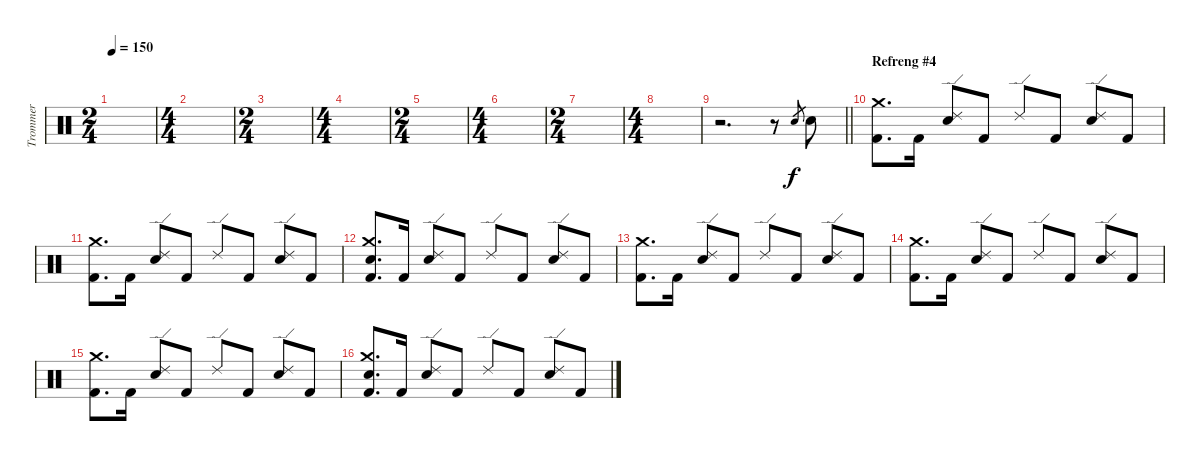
\track ("Trommer" "Trommer") {instrument percussion}
\staff {score}
\articulation defaults
\ts (2 4)
\tempo 150
\clef neutral
\ks c
|
\ts (4 4)
|
\ts (2 4)
|
\ts (4 4)
|
\ts (2 4)
|
\ts (4 4)
|
\ts (2 4)
|
\ts (4 4)
|
\barLineRight lightlight
r.2{d} r.8 "Snare (hit) 2".8{gr} "Snare (hit) 2".8 |
\section ("" "Refreng #4")
("Crash medium (hit)" "Kick (hit) 2").8{d} "Kick (hit) 2".16 ("Ride (edge) 2" "Snare (hit) 2").8 "Kick (hit) 2".8 "Ride (edge) 2".8 "Kick (hit) 2".8 ("Ride (edge) 2" "Snare (hit) 2").8 "Kick (hit) 2".8 |
("Crash medium (hit)" "Kick (hit) 2").8{d} "Kick (hit) 2".16 ("Ride (edge) 2" "Snare (hit) 2").8 "Kick (hit) 2".8 "Ride (edge) 2".8 "Kick (hit) 2".8 ("Ride (edge) 2" "Snare (hit) 2").8 "Kick (hit) 2".8 |
("Crash medium (hit)" "Snare (hit) 2" "Kick (hit) 2").8{d} "Kick (hit) 2".16 ("Ride (edge) 2" "Snare (hit) 2").8 "Kick (hit) 2".8 "Ride (edge) 2".8 "Kick (hit) 2".8 ("Ride (edge) 2" "Snare (hit) 2").8 "Kick (hit) 2".8 |
("Crash medium (hit)" "Kick (hit) 2").8{d} "Kick (hit) 2".16 ("Ride (edge) 2" "Snare (hit) 2").8 "Kick (hit) 2".8 "Ride (edge) 2".8 "Kick (hit) 2".8 ("Ride (edge) 2" "Snare (hit) 2").8 "Kick (hit) 2".8 |
("Crash medium (hit)" "Kick (hit) 2").8{d} "Kick (hit) 2".16 ("Ride (edge) 2" "Snare (hit) 2").8 "Kick (hit) 2".8 "Ride (edge) 2".8 "Kick (hit) 2".8 ("Ride (edge) 2" "Snare (hit) 2").8 "Kick (hit) 2".8 |
("Crash medium (hit)" "Kick (hit) 2").8{d} "Kick (hit) 2".16 ("Ride (edge) 2" "Snare (hit) 2").8 "Kick (hit) 2".8 "Ride (edge) 2".8 "Kick (hit) 2".8 ("Ride (edge) 2" "Snare (hit) 2").8 "Kick (hit) 2".8 |
("Crash medium (hit)" "Snare (hit) 2" "Kick (hit) 2").8{d} "Kick (hit) 2".16 ("Ride (edge) 2" "Snare (hit) 2").8 "Kick (hit) 2".8 "Ride (edge) 2".8 "Kick (hit) 2".8 ("Ride (edge) 2" "Snare (hit) 2").8 "Kick (hit) 2".8
